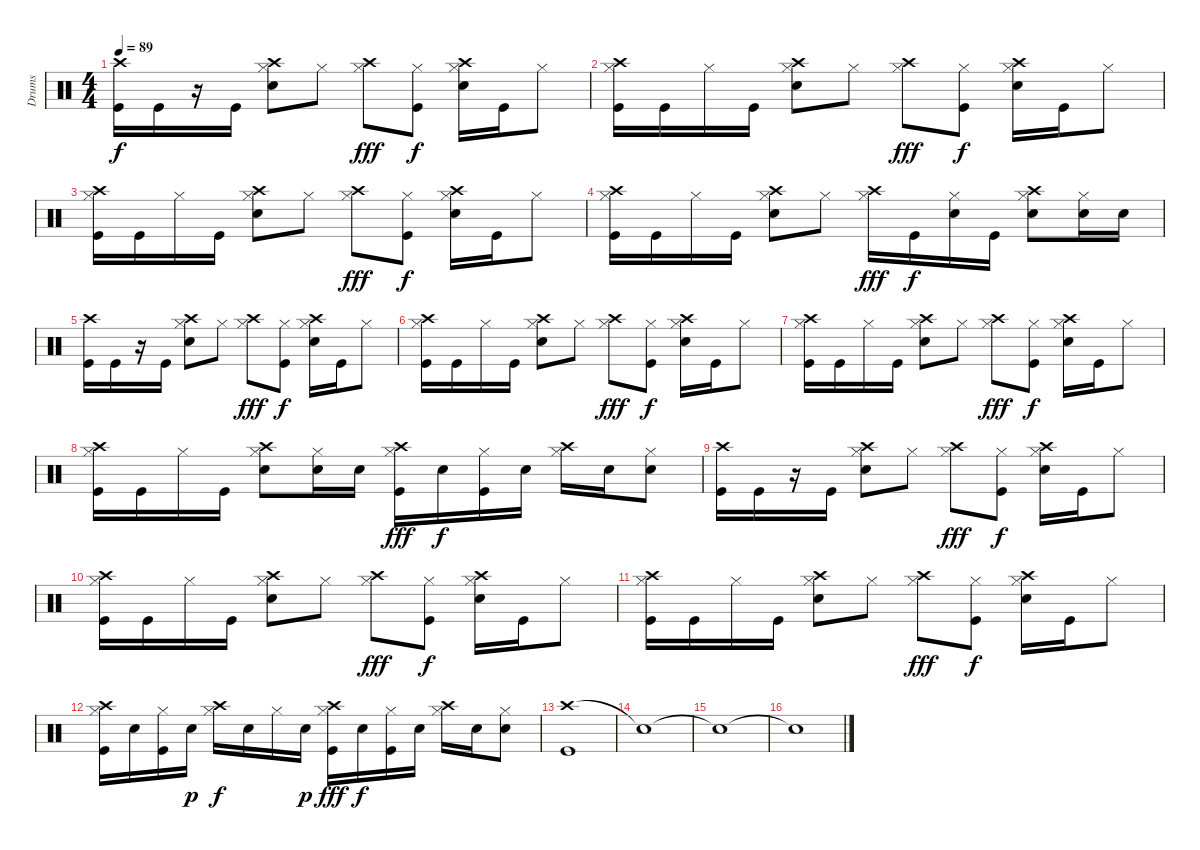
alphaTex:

\track ("Drums" "Drums") {instrument percussion}
\staff {score}
\articulation defaults
\ts (4 4)
\tempo 89
\clef neutral
\ks c
("Crash high (hit)" "Kick (hit)").16{dy f} "Kick (hit)".16 r.16 "Kick (hit)".16 ("Hi-Hat (closed)" "Crash high (hit)" "Snare (hit) 2").8 "Hi-Hat (closed)".8 ("Hi-Hat (closed)" "Crash high (hit)").8{dy fff} ("Hi-Hat (closed)" "Kick (hit)").8{dy f} ("Hi-Hat (closed)" "Crash high (hit)" "Snare (hit) 2").16 "Kick (hit)".16 "Hi-Hat (closed)".8 |
("Hi-Hat (closed)" "Crash high (hit)" "Kick (hit)").16 "Kick (hit)".16 "Hi-Hat (closed)".16 "Kick (hit)".16 ("Hi-Hat (closed)" "Crash high (hit)" "Snare (hit) 2").8 "Hi-Hat (closed)".8 ("Hi-Hat (closed)" "Crash high (hit)").8{dy fff} ("Hi-Hat (closed)" "Kick (hit)").8{dy f} ("Hi-Hat (closed)" "Crash high (hit)" "Snare (hit) 2").16 "Kick (hit)".16 "Hi-Hat (closed)".8 |
("Hi-Hat (closed)" "Crash high (hit)" "Kick (hit)").16 "Kick (hit)".16 "Hi-Hat (closed)".16 "Kick (hit)".16 ("Hi-Hat (closed)" "Crash high (hit)" "Snare (hit) 2").8 "Hi-Hat (closed)".8 ("Hi-Hat (closed)" "Crash high (hit)").8{dy fff} ("Hi-Hat (closed)" "Kick (hit)").8{dy f} ("Hi-Hat (closed)" "Crash high (hit)" "Snare (hit) 2").16 "Kick (hit)".16 "Hi-Hat (closed)".8 |
("Hi-Hat (closed)" "Crash high (hit)" "Kick (hit)").16 "Kick (hit)".16 "Hi-Hat (closed)".16 "Kick (hit)".16 ("Hi-Hat (closed)" "Crash high (hit)" "Snare (hit) 2").8 "Hi-Hat (closed)".8 ("Hi-Hat (closed)" "Crash high (hit)").16{dy fff} "Kick (hit)".16{dy f} ("Hi-Hat (closed)" "Snare (hit) 2").16 "Kick (hit)".16 ("Hi-Hat (closed)" "Crash high (hit)" "Snare (hit) 2").8 ("Hi-Hat (closed)" "Snare (hit) 2").16 "Snare (hit) 2".16 |
("Crash high (hit)" "Kick (hit)").16 "Kick (hit)".16 r.16 "Kick (hit)".16 ("Hi-Hat (closed)" "Crash high (hit)" "Snare (hit) 2").8 "Hi-Hat (closed)".8 ("Hi-Hat (closed)" "Crash high (hit)").8{dy fff} ("Hi-Hat (closed)" "Kick (hit)").8{dy f} ("Hi-Hat (closed)" "Crash high (hit)" "Snare (hit) 2").16 "Kick (hit)".16 "Hi-Hat (closed)".8 |
("Hi-Hat (closed)" "Crash high (hit)" "Kick (hit)").16 "Kick (hit)".16 "Hi-Hat (closed)".16 "Kick (hit)".16 ("Hi-Hat (closed)" "Crash high (hit)" "Snare (hit) 2").8 "Hi-Hat (closed)".8 ("Hi-Hat (closed)" "Crash high (hit)").8{dy fff} ("Hi-Hat (closed)" "Kick (hit)").8{dy f} ("Hi-Hat (closed)" "Crash high (hit)" "Snare (hit) 2").16 "Kick (hit)".16 "Hi-Hat (closed)".8 |
("Hi-Hat (closed)" "Crash high (hit)" "Kick (hit)").16 "Kick (hit)".16 "Hi-Hat (closed)".16 "Kick (hit)".16 ("Hi-Hat (closed)" "Crash high (hit)" "Snare (hit) 2").8 "Hi-Hat (closed)".8 ("Hi-Hat (closed)" "Crash high (hit)").8{dy fff} ("Hi-Hat (closed)" "Kick (hit)").8{dy f} ("Hi-Hat (closed)" "Crash high (hit)" "Snare (hit) 2").16 "Kick (hit)".16 "Hi-Hat (closed)".8 |
("Hi-Hat (closed)" "Crash high (hit)" "Kick (hit)").16 "Kick (hit)".16 "Hi-Hat (closed)".16 "Kick (hit)".16 ("Hi-Hat (closed)" "Crash high (hit)" "Snare (hit) 2").8 ("Hi-Hat (closed)" "Snare (hit) 2").16 "Snare (hit) 2".16 ("Hi-Hat (closed)" "Crash high (hit)" "Kick (hit)").16{dy fff} "Snare (hit) 2".16{dy f} ("Hi-Hat (closed)" "Kick (hit)").16 "Snare (hit) 2".16 ("Hi-Hat (closed)" "Crash high (hit)").16 "Snare (hit) 2".16 ("Hi-Hat (closed)" "Snare (hit) 2").8 |
("Crash high (hit)" "Kick (hit)").16 "Kick (hit)".16 r.16 "Kick (hit)".16 ("Hi-Hat (closed)" "Crash high (hit)" "Snare (hit) 2").8 "Hi-Hat (closed)".8 ("Hi-Hat (closed)" "Crash high (hit)").8{dy fff} ("Hi-Hat (closed)" "Kick (hit)").8{dy f} ("Hi-Hat (closed)" "Crash high (hit)" "Snare (hit) 2").16 "Kick (hit)".16 "Hi-Hat (closed)".8 |
("Hi-Hat (closed)" "Crash high (hit)" "Kick (hit)").16 "Kick (hit)".16 "Hi-Hat (closed)".16 "Kick (hit)".16 ("Hi-Hat (closed)" "Crash high (hit)" "Snare (hit) 2").8 "Hi-Hat (closed)".8 ("Hi-Hat (closed)" "Crash high (hit)").8{dy fff} ("Hi-Hat (closed)" "Kick (hit)").8{dy f} ("Hi-Hat (closed)" "Crash high (hit)" "Snare (hit) 2").16 "Kick (hit)".16 "Hi-Hat (closed)".8 |
("Hi-Hat (closed)" "Crash high (hit)" "Kick (hit)").16 "Kick (hit)".16 "Hi-Hat (closed)".16 "Kick (hit)".16 ("Hi-Hat (closed)" "Crash high (hit)" "Snare (hit) 2").8 "Hi-Hat (closed)".8 ("Hi-Hat (closed)" "Crash high (hit)").8{dy fff} ("Hi-Hat (closed)" "Kick (hit)").8{dy f} ("Hi-Hat (closed)" "Crash high (hit)" "Snare (hit) 2").16 "Kick (hit)".16 "Hi-Hat (closed)".8 |
("Hi-Hat (closed)" "Crash high (hit)" "Kick (hit)").16 "Snare (hit) 2".16 ("Hi-Hat (closed)" "Kick (hit)").16 "Snare (hit) 2".16{dy p} ("Hi-Hat (closed)" "Crash high (hit)").16{dy f} "Snare (hit) 2".16 "Hi-Hat (closed)".16 "Snare (hit) 2".16{dy p} ("Hi-Hat (closed)" "Crash high (hit)" "Kick (hit)").16{dy fff} "Snare (hit) 2".16{dy f} ("Hi-Hat (closed)" "Kick (hit)").16 "Snare (hit) 2".16 ("Hi-Hat (closed)" "Crash high (hit)").16 "Snare (hit) 2".16 ("Hi-Hat (closed)" "Snare (hit) 2").8 |
("Crash high (hit)" "Kick (hit)").1 |
"Snare (hit)"{t}.1 |
"Snare (hit)"{t}.1 |
"Snare (hit)"{t}.1
